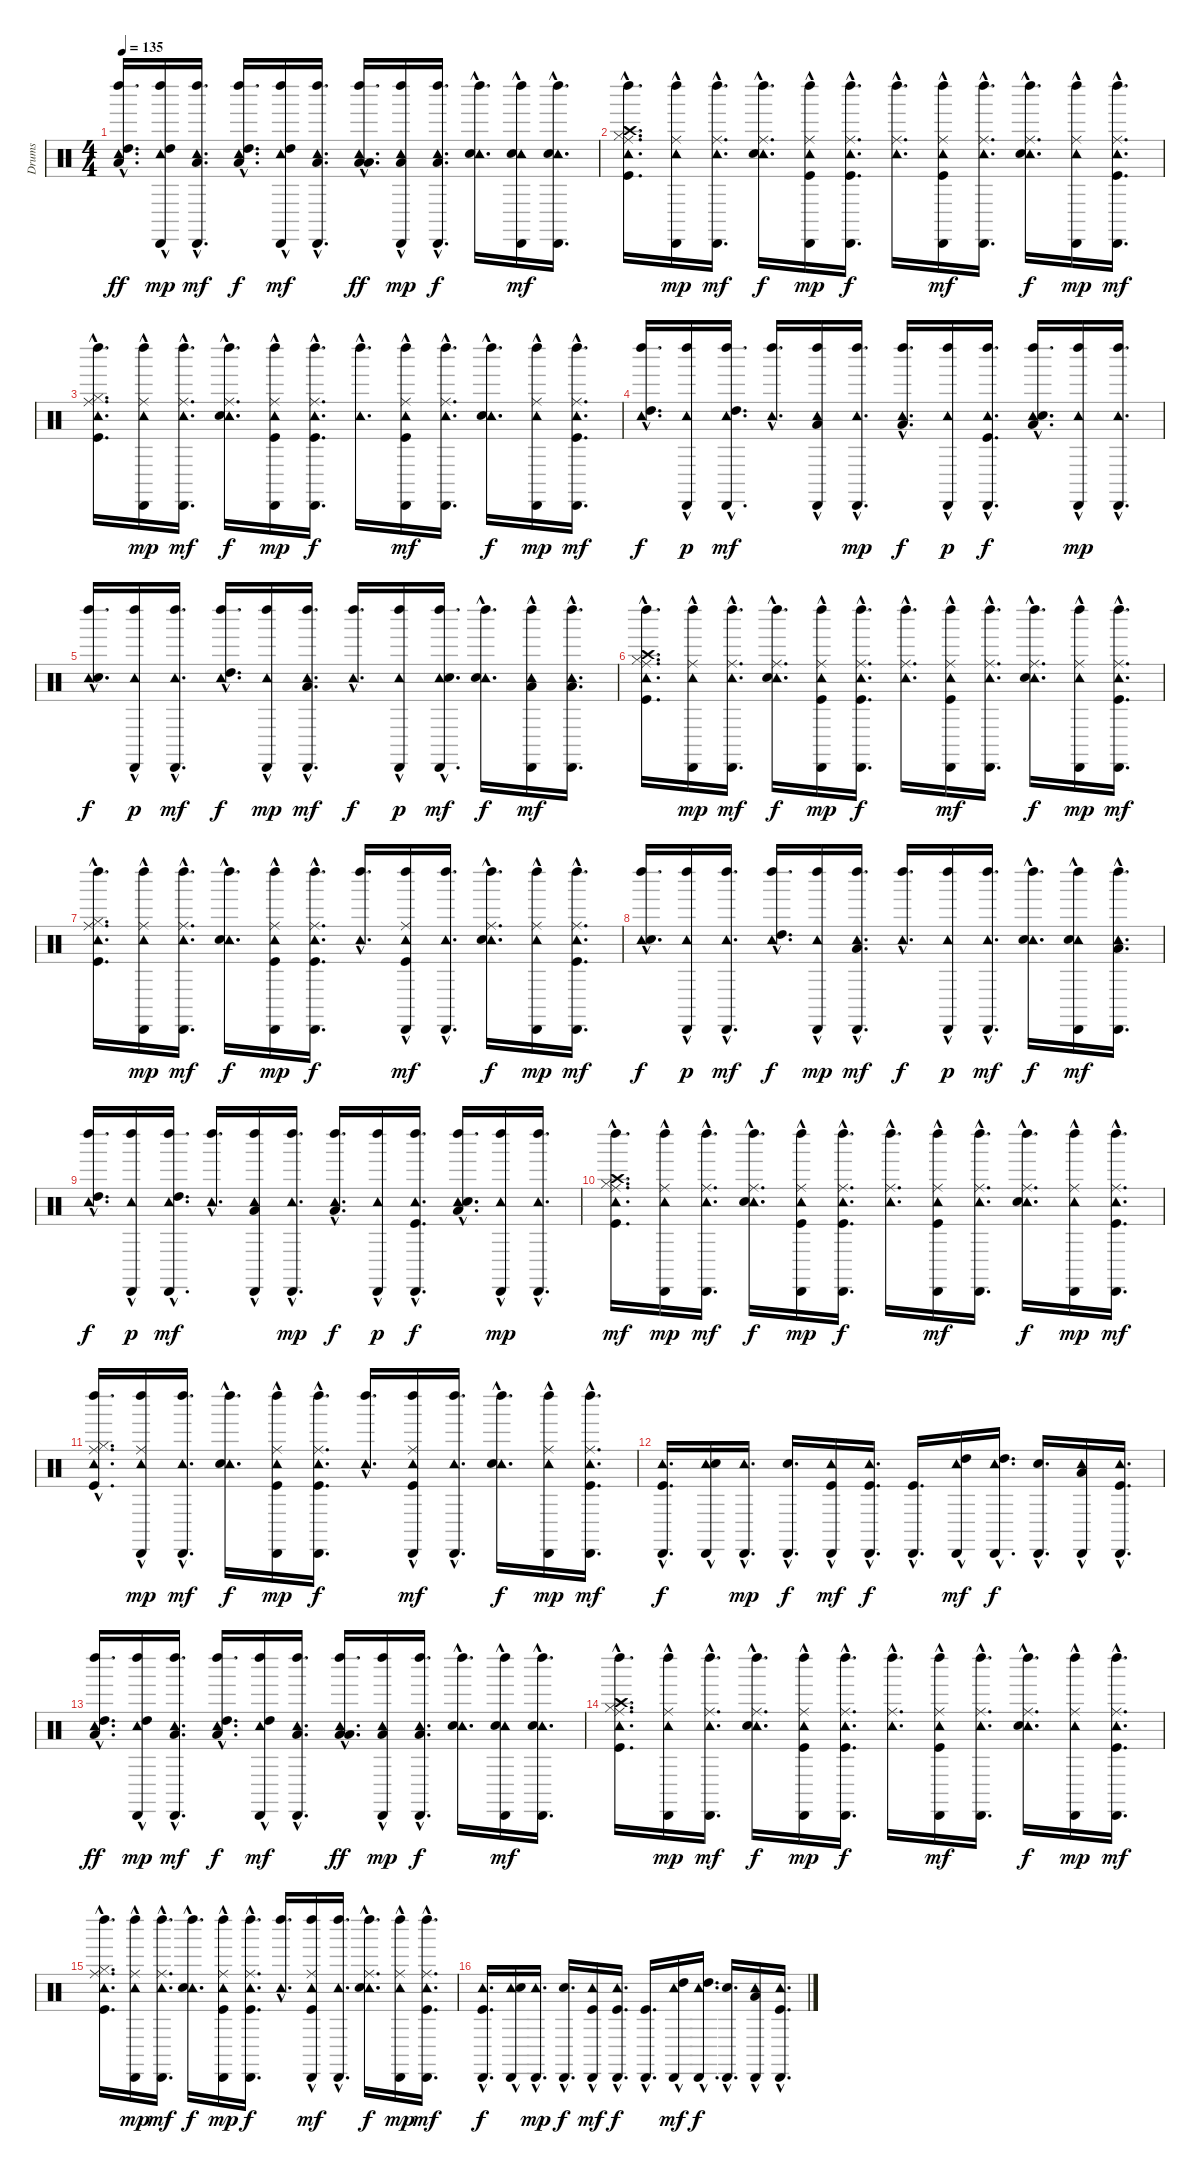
\track ("Drums" "Drums") {instrument percussion}
\staff {score}
\articulation defaults
\ts (4 4)
\tempo 135
\clef neutral
\ks c
("Left Maraca (hit)"{hac} "Tambourine (hit)"{hac} "High Tom (hit)"{hac} "Low Tom (hit)"{hac}).16{d dy ff} ("Left Maraca (hit)"{hac} "Cabasa (hit)"{hac} "Tambourine (hit)"{hac} "High Tom (hit)"{hac}).16{dy mp} ("Left Maraca (hit)"{hac} "Cabasa (hit)"{hac} "Tambourine (hit)"{hac} "Low Tom (hit)"{hac}).16{d dy mf} ("Left Maraca (hit)"{hac} "Tambourine (hit)"{hac} "High Tom (hit)"{hac} "Low Tom (hit)"{hac}).16{d dy f} ("Left Maraca (hit)"{hac} "Cabasa (hit)"{hac} "Tambourine (hit)"{hac} "High Tom (hit)"{hac}).16{dy mf} ("Left Maraca (hit)"{hac} "Cabasa (hit)"{hac} "Tambourine (hit)"{hac} "Low Tom (hit)"{hac}).16{d} ("Left Maraca (hit)"{hac} "Tambourine (hit)"{hac} "Low Tom (hit)"{hac} "Low Floor Tom (hit)"{hac}).16{d dy ff} ("Left Maraca (hit)"{hac} "Cabasa (hit)"{hac} "Tambourine (hit)"{hac} "Low Tom (hit)"{hac}).16{dy mp} ("Left Maraca (hit)"{hac} "Cabasa (hit)"{hac} "Tambourine (hit)"{hac} "Low Floor Tom (hit)"{hac}).16{d dy f} ("Left Maraca (hit)"{hac} "Tambourine (hit)"{hac} "Snare (hit) 2"{hac}).16{d} ("Left Maraca (hit)"{hac} "Cabasa (hit)"{hac} "Tambourine (hit)"{hac} "Snare (hit) 2"{hac}).16{dy mf} ("Left Maraca (hit)"{hac} "Cabasa (hit)"{hac} "Tambourine (hit)"{hac} "Snare (hit) 2"{hac}).16{d} |
("Left Maraca (hit)"{hac} "Tambourine (hit)"{hac} "Ride (middle)"{hac} "Crash high (hit)"{hac} "Hi-Hat (closed)"{hac} "Kick (hit)"{hac}).16{d} ("Left Maraca (hit)"{hac} "Cabasa (hit)"{hac} "Tambourine (hit)"{hac} "Ride (middle)"{hac}).16{dy mp} ("Left Maraca (hit)"{hac} "Cabasa (hit)"{hac} "Tambourine (hit)"{hac} "Ride (middle)"{hac}).16{d dy mf} ("Left Maraca (hit)"{hac} "Tambourine (hit)"{hac} "Ride (middle)"{hac} "Snare (hit) 2"{hac}).16{d dy f} ("Left Maraca (hit)"{hac} "Cabasa (hit)"{hac} "Tambourine (hit)"{hac} "Ride (middle)"{hac} "Kick (hit)"{hac}).16{dy mp} ("Left Maraca (hit)"{hac} "Cabasa (hit)"{hac} "Tambourine (hit)"{hac} "Ride (middle)"{hac} "Kick (hit)"{hac}).16{d dy f} ("Left Maraca (hit)"{hac} "Tambourine (hit)"{hac} "Ride (middle)"{hac}).16{d} ("Left Maraca (hit)"{hac} "Cabasa (hit)"{hac} "Tambourine (hit)"{hac} "Ride (middle)"{hac} "Kick (hit)"{hac}).16{dy mf} ("Left Maraca (hit)"{hac} "Cabasa (hit)"{hac} "Tambourine (hit)"{hac} "Ride (middle)"{hac}).16{d} ("Left Maraca (hit)"{hac} "Tambourine (hit)"{hac} "Ride (middle)"{hac} "Snare (hit) 2"{hac}).16{d dy f} ("Left Maraca (hit)"{hac} "Cabasa (hit)"{hac} "Tambourine (hit)"{hac} "Ride (middle)"{hac}).16{dy mp} ("Left Maraca (hit)"{hac} "Cabasa (hit)"{hac} "Tambourine (hit)"{hac} "Ride (middle)"{hac} "Kick (hit)"{hac}).16{d dy mf} |
("Left Maraca (hit)"{hac} "Tambourine (hit)"{hac} "Ride (middle)"{hac} "Hi-Hat (closed)"{hac} "Kick (hit)"{hac}).16{d} ("Left Maraca (hit)"{hac} "Cabasa (hit)"{hac} "Tambourine (hit)"{hac} "Ride (middle)"{hac}).16{dy mp} ("Left Maraca (hit)"{hac} "Cabasa (hit)"{hac} "Tambourine (hit)"{hac} "Ride (middle)"{hac}).16{d dy mf} ("Left Maraca (hit)"{hac} "Tambourine (hit)"{hac} "Ride (middle)"{hac} "Snare (hit) 2"{hac}).16{d dy f} ("Left Maraca (hit)"{hac} "Cabasa (hit)"{hac} "Tambourine (hit)"{hac} "Ride (middle)"{hac} "Kick (hit)"{hac}).16{dy mp} ("Left Maraca (hit)"{hac} "Cabasa (hit)"{hac} "Tambourine (hit)"{hac} "Ride (middle)"{hac} "Kick (hit)"{hac}).16{d dy f} ("Left Maraca (hit)"{hac} "Tambourine (hit)"{hac}).16{d} ("Left Maraca (hit)"{hac} "Cabasa (hit)"{hac} "Tambourine (hit)"{hac} "Ride (middle)"{hac} "Kick (hit)"{hac}).16{dy mf} ("Left Maraca (hit)"{hac} "Cabasa (hit)"{hac} "Tambourine (hit)"{hac} "Ride (middle)"{hac}).16{d} ("Left Maraca (hit)"{hac} "Tambourine (hit)"{hac} "Snare (hit) 2"{hac}).16{d dy f} ("Left Maraca (hit)"{hac} "Cabasa (hit)"{hac} "Tambourine (hit)"{hac} "Ride (middle)"{hac}).16{dy mp} ("Left Maraca (hit)"{hac} "Cabasa (hit)"{hac} "Tambourine (hit)"{hac} "Ride (middle)"{hac} "Kick (hit)"{hac}).16{d dy mf} |
("Left Maraca (hit)"{hac} "Tambourine (hit)"{hac} "High Tom (hit)"{hac}).16{d dy f} ("Left Maraca (hit)"{hac} "Cabasa (hit)"{hac} "Tambourine (hit)"{hac}).16{dy p} ("Left Maraca (hit)"{hac} "Cabasa (hit)"{hac} "Tambourine (hit)"{hac} "High Tom (hit)"{hac}).16{d dy mf} ("Left Maraca (hit)"{hac} "Tambourine (hit)"{hac}).16{d} ("Left Maraca (hit)"{hac} "Cabasa (hit)"{hac} "Tambourine (hit)"{hac} "Low Tom (hit)"{hac}).16 ("Left Maraca (hit)"{hac} "Cabasa (hit)"{hac} "Tambourine (hit)"{hac}).16{d dy mp} ("Left Maraca (hit)"{hac} "Tambourine (hit)"{hac} "Low Tom (hit)"{hac}).16{d dy f} ("Left Maraca (hit)"{hac} "Cabasa (hit)"{hac} "Tambourine (hit)"{hac}).16{dy p} ("Left Maraca (hit)"{hac} "Cabasa (hit)"{hac} "Tambourine (hit)"{hac} "Kick (hit)"{hac}).16{d dy f} ("Left Maraca (hit)"{hac} "Tambourine (hit)"{hac} "Low Floor Tom (hit)"{hac} "Snare (hit) 2"{hac}).16{d} ("Left Maraca (hit)"{hac} "Cabasa (hit)"{hac} "Tambourine (hit)"{hac}).16{dy mp} ("Left Maraca (hit)"{hac} "Cabasa (hit)"{hac} "Tambourine (hit)"{hac}).16{d} |
("Left Maraca (hit)"{hac} "Tambourine (hit)"{hac} "Snare (hit) 2"{hac}).16{d dy f} ("Left Maraca (hit)"{hac} "Cabasa (hit)"{hac} "Tambourine (hit)"{hac}).16{dy p} ("Left Maraca (hit)"{hac} "Cabasa (hit)"{hac} "Tambourine (hit)"{hac}).16{d dy mf} ("Left Maraca (hit)"{hac} "Tambourine (hit)"{hac} "High Tom (hit)"{hac}).16{d dy f} ("Left Maraca (hit)"{hac} "Cabasa (hit)"{hac} "Tambourine (hit)"{hac}).16{dy mp} ("Left Maraca (hit)"{hac} "Cabasa (hit)"{hac} "Tambourine (hit)"{hac} "Low Tom (hit)"{hac}).16{d dy mf} ("Left Maraca (hit)"{hac} "Tambourine (hit)"{hac}).16{d dy f} ("Left Maraca (hit)"{hac} "Cabasa (hit)"{hac} "Tambourine (hit)"{hac}).16{dy p} ("Left Maraca (hit)"{hac} "Cabasa (hit)"{hac} "Tambourine (hit)"{hac} "Snare (hit) 2"{hac}).16{d dy mf} ("Left Maraca (hit)"{hac} "Tambourine (hit)"{hac} "Snare (hit) 2"{hac}).16{d dy f} ("Left Maraca (hit)"{hac} "Cabasa (hit)"{hac} "Tambourine (hit)"{hac} "Low Floor Tom (hit)"{hac}).16{dy mf} ("Left Maraca (hit)"{hac} "Cabasa (hit)"{hac} "Tambourine (hit)"{hac} "Low Floor Tom (hit)"{hac}).16{d} |
("Left Maraca (hit)"{hac} "Tambourine (hit)"{hac} "Ride (middle)"{hac} "Crash high (hit)"{hac} "Hi-Hat (closed)"{hac} "Kick (hit)"{hac}).16{d} ("Left Maraca (hit)"{hac} "Cabasa (hit)"{hac} "Tambourine (hit)"{hac} "Ride (middle)"{hac}).16{dy mp} ("Left Maraca (hit)"{hac} "Cabasa (hit)"{hac} "Tambourine (hit)"{hac} "Ride (middle)"{hac}).16{d dy mf} ("Left Maraca (hit)"{hac} "Tambourine (hit)"{hac} "Ride (middle)"{hac} "Snare (hit) 2"{hac}).16{d dy f} ("Left Maraca (hit)"{hac} "Cabasa (hit)"{hac} "Tambourine (hit)"{hac} "Ride (middle)"{hac} "Kick (hit)"{hac}).16{dy mp} ("Left Maraca (hit)"{hac} "Cabasa (hit)"{hac} "Tambourine (hit)"{hac} "Ride (middle)"{hac} "Kick (hit)"{hac}).16{d dy f} ("Left Maraca (hit)"{hac} "Tambourine (hit)"{hac} "Ride (middle)"{hac}).16{d} ("Left Maraca (hit)"{hac} "Cabasa (hit)"{hac} "Tambourine (hit)"{hac} "Ride (middle)"{hac} "Kick (hit)"{hac}).16{dy mf} ("Left Maraca (hit)"{hac} "Cabasa (hit)"{hac} "Tambourine (hit)"{hac} "Ride (middle)"{hac}).16{d} ("Left Maraca (hit)"{hac} "Tambourine (hit)"{hac} "Ride (middle)"{hac} "Snare (hit) 2"{hac}).16{d dy f} ("Left Maraca (hit)"{hac} "Cabasa (hit)"{hac} "Tambourine (hit)"{hac} "Ride (middle)"{hac}).16{dy mp} ("Left Maraca (hit)"{hac} "Cabasa (hit)"{hac} "Tambourine (hit)"{hac} "Ride (middle)"{hac} "Kick (hit)"{hac}).16{d dy mf} |
("Left Maraca (hit)"{hac} "Tambourine (hit)"{hac} "Ride (middle)"{hac} "Hi-Hat (closed)"{hac} "Kick (hit)"{hac}).16{d} ("Left Maraca (hit)"{hac} "Cabasa (hit)"{hac} "Tambourine (hit)"{hac} "Ride (middle)"{hac}).16{dy mp} ("Left Maraca (hit)"{hac} "Cabasa (hit)"{hac} "Tambourine (hit)"{hac} "Ride (middle)"{hac}).16{d dy mf} ("Left Maraca (hit)"{hac} "Tambourine (hit)"{hac} "Snare (hit) 2"{hac}).16{d dy f} ("Left Maraca (hit)"{hac} "Cabasa (hit)"{hac} "Tambourine (hit)"{hac} "Ride (middle)"{hac} "Kick (hit)"{hac}).16{dy mp} ("Left Maraca (hit)"{hac} "Cabasa (hit)"{hac} "Tambourine (hit)"{hac} "Ride (middle)"{hac} "Kick (hit)"{hac}).16{d dy f} ("Left Maraca (hit)"{hac} "Tambourine (hit)"{hac}).16{d} ("Left Maraca (hit)"{hac} "Cabasa (hit)"{hac} "Tambourine (hit)"{hac} "Ride (middle)"{hac} "Kick (hit)"{hac}).16{dy mf} ("Left Maraca (hit)"{hac} "Cabasa (hit)"{hac} "Tambourine (hit)"{hac}).16{d} ("Left Maraca (hit)"{hac} "Tambourine (hit)"{hac} "Ride (middle)"{hac} "Snare (hit) 2"{hac}).16{d dy f} ("Left Maraca (hit)"{hac} "Cabasa (hit)"{hac} "Tambourine (hit)"{hac} "Ride (middle)"{hac}).16{dy mp} ("Left Maraca (hit)"{hac} "Cabasa (hit)"{hac} "Tambourine (hit)"{hac} "Ride (middle)"{hac} "Kick (hit)"{hac}).16{d dy mf} |
("Left Maraca (hit)"{hac} "Tambourine (hit)"{hac} "Snare (hit) 2"{hac}).16{d dy f} ("Left Maraca (hit)"{hac} "Cabasa (hit)"{hac} "Tambourine (hit)"{hac}).16{dy p} ("Left Maraca (hit)"{hac} "Cabasa (hit)"{hac} "Tambourine (hit)"{hac}).16{d dy mf} ("Left Maraca (hit)"{hac} "Tambourine (hit)"{hac} "High Tom (hit)"{hac}).16{d dy f} ("Left Maraca (hit)"{hac} "Cabasa (hit)"{hac} "Tambourine (hit)"{hac}).16{dy mp} ("Left Maraca (hit)"{hac} "Cabasa (hit)"{hac} "Tambourine (hit)"{hac} "Low Tom (hit)"{hac}).16{d dy mf} ("Left Maraca (hit)"{hac} "Tambourine (hit)"{hac}).16{d dy f} ("Left Maraca (hit)"{hac} "Cabasa (hit)"{hac} "Tambourine (hit)"{hac}).16{dy p} ("Left Maraca (hit)"{hac} "Cabasa (hit)"{hac} "Tambourine (hit)"{hac}).16{d dy mf} ("Left Maraca (hit)"{hac} "Tambourine (hit)"{hac} "Snare (hit) 2"{hac}).16{d dy f} ("Left Maraca (hit)"{hac} "Cabasa (hit)"{hac} "Tambourine (hit)"{hac} "Snare (hit) 2"{hac}).16{dy mf} ("Left Maraca (hit)"{hac} "Cabasa (hit)"{hac} "Tambourine (hit)"{hac} "Low Floor Tom (hit)"{hac}).16{d} |
("Left Maraca (hit)"{hac} "Tambourine (hit)"{hac} "High Tom (hit)"{hac}).16{d dy f} ("Left Maraca (hit)"{hac} "Cabasa (hit)"{hac} "Tambourine (hit)"{hac}).16{dy p} ("Left Maraca (hit)"{hac} "Cabasa (hit)"{hac} "Tambourine (hit)"{hac} "High Tom (hit)"{hac}).16{d dy mf} ("Left Maraca (hit)"{hac} "Tambourine (hit)"{hac}).16{d} ("Left Maraca (hit)"{hac} "Cabasa (hit)"{hac} "Tambourine (hit)"{hac} "Low Tom (hit)"{hac}).16 ("Left Maraca (hit)"{hac} "Cabasa (hit)"{hac} "Tambourine (hit)"{hac}).16{d dy mp} ("Left Maraca (hit)"{hac} "Tambourine (hit)"{hac} "Low Tom (hit)"{hac}).16{d dy f} ("Left Maraca (hit)"{hac} "Cabasa (hit)"{hac} "Tambourine (hit)"{hac}).16{dy p} ("Left Maraca (hit)"{hac} "Cabasa (hit)"{hac} "Tambourine (hit)"{hac} "Kick (hit)"{hac}).16{d dy f} ("Left Maraca (hit)"{hac} "Tambourine (hit)"{hac} "Low Floor Tom (hit)"{hac} "Snare (hit) 2"{hac}).16{d} ("Left Maraca (hit)"{hac} "Cabasa (hit)"{hac} "Tambourine (hit)"{hac}).16{dy mp} ("Left Maraca (hit)"{hac} "Cabasa (hit)"{hac} "Tambourine (hit)"{hac}).16{d} |
("Left Maraca (hit)"{hac} "Tambourine (hit)"{hac} "Ride (middle)"{hac} "Crash high (hit)"{hac} "Hi-Hat (closed)"{hac} "Kick (hit)"{hac}).16{d dy mf} ("Left Maraca (hit)"{hac} "Cabasa (hit)"{hac} "Tambourine (hit)"{hac} "Ride (middle)"{hac}).16{dy mp} ("Left Maraca (hit)"{hac} "Cabasa (hit)"{hac} "Tambourine (hit)"{hac} "Ride (middle)"{hac}).16{d dy mf} ("Left Maraca (hit)"{hac} "Tambourine (hit)"{hac} "Ride (middle)"{hac} "Snare (hit) 2"{hac}).16{d dy f} ("Left Maraca (hit)"{hac} "Cabasa (hit)"{hac} "Tambourine (hit)"{hac} "Ride (middle)"{hac} "Kick (hit)"{hac}).16{dy mp} ("Left Maraca (hit)"{hac} "Cabasa (hit)"{hac} "Tambourine (hit)"{hac} "Ride (middle)"{hac} "Kick (hit)"{hac}).16{d dy f} ("Left Maraca (hit)"{hac} "Tambourine (hit)"{hac} "Ride (middle)"{hac}).16{d} ("Left Maraca (hit)"{hac} "Cabasa (hit)"{hac} "Tambourine (hit)"{hac} "Ride (middle)"{hac} "Kick (hit)"{hac}).16{dy mf} ("Left Maraca (hit)"{hac} "Cabasa (hit)"{hac} "Tambourine (hit)"{hac} "Ride (middle)"{hac}).16{d} ("Left Maraca (hit)"{hac} "Tambourine (hit)"{hac} "Ride (middle)"{hac} "Snare (hit) 2"{hac}).16{d dy f} ("Left Maraca (hit)"{hac} "Cabasa (hit)"{hac} "Tambourine (hit)"{hac} "Ride (middle)"{hac}).16{dy mp} ("Left Maraca (hit)"{hac} "Cabasa (hit)"{hac} "Tambourine (hit)"{hac} "Ride (middle)"{hac} "Kick (hit)"{hac}).16{d dy mf} |
("Left Maraca (hit)"{hac} "Tambourine (hit)"{hac} "Ride (middle)"{hac} "Hi-Hat (closed)"{hac} "Kick (hit)"{hac}).16{d} ("Left Maraca (hit)"{hac} "Cabasa (hit)"{hac} "Tambourine (hit)"{hac} "Ride (middle)"{hac}).16{dy mp} ("Left Maraca (hit)"{hac} "Cabasa (hit)"{hac} "Tambourine (hit)"{hac}).16{d dy mf} ("Left Maraca (hit)"{hac} "Tambourine (hit)"{hac} "Snare (hit) 2"{hac}).16{d dy f} ("Left Maraca (hit)"{hac} "Cabasa (hit)"{hac} "Tambourine (hit)"{hac} "Ride (middle)"{hac} "Kick (hit)"{hac}).16{dy mp} ("Left Maraca (hit)"{hac} "Cabasa (hit)"{hac} "Tambourine (hit)"{hac} "Ride (middle)"{hac} "Kick (hit)"{hac}).16{d dy f} ("Left Maraca (hit)"{hac} "Tambourine (hit)"{hac}).16{d} ("Left Maraca (hit)"{hac} "Cabasa (hit)"{hac} "Tambourine (hit)"{hac} "Ride (middle)"{hac} "Kick (hit)"{hac}).16{dy mf} ("Left Maraca (hit)"{hac} "Cabasa (hit)"{hac} "Tambourine (hit)"{hac}).16{d} ("Left Maraca (hit)"{hac} "Tambourine (hit)"{hac} "Snare (hit) 2"{hac}).16{d dy f} ("Left Maraca (hit)"{hac} "Cabasa (hit)"{hac} "Tambourine (hit)"{hac} "Ride (middle)"{hac}).16{dy mp} ("Left Maraca (hit)"{hac} "Cabasa (hit)"{hac} "Tambourine (hit)"{hac} "Ride (middle)"{hac} "Kick (hit)"{hac}).16{d dy mf} |
("Cabasa (hit)"{hac} "Tambourine (hit)"{hac} "Kick (hit)"{hac}).16{d dy f} ("Cabasa (hit)"{hac} "Tambourine (hit)"{hac} "Snare (hit) 2"{hac}).16 ("Cabasa (hit)"{hac} "Tambourine (hit)"{hac}).16{d dy mp} ("Cabasa (hit)"{hac} "Snare (hit) 2"{hac}).16{d dy f} ("Cabasa (hit)"{hac} "Tambourine (hit)"{hac} "Kick (hit)"{hac}).16{dy mf} ("Cabasa (hit)"{hac} "Tambourine (hit)"{hac} "Kick (hit)"{hac}).16{d dy f} ("Cabasa (hit)"{hac} "Kick (hit)"{hac}).16{d} ("Cabasa (hit)"{hac} "Tambourine (hit)"{hac} "High Tom (hit)"{hac}).16{dy mf} ("Cabasa (hit)"{hac} "Tambourine (hit)"{hac} "High Tom (hit)"{hac}).16{d dy f} ("Cabasa (hit)"{hac} "Snare (hit) 2"{hac}).16{d} ("Cabasa (hit)"{hac} "Tambourine (hit)"{hac} "Low Tom (hit)"{hac}).16 ("Cabasa (hit)"{hac} "Tambourine (hit)"{hac} "Kick (hit)"{hac}).16{d} |
("Left Maraca (hit)"{hac} "Tambourine (hit)"{hac} "High Tom (hit)"{hac} "Low Tom (hit)"{hac}).16{d dy ff} ("Left Maraca (hit)"{hac} "Cabasa (hit)"{hac} "Tambourine (hit)"{hac} "High Tom (hit)"{hac}).16{dy mp} ("Left Maraca (hit)"{hac} "Cabasa (hit)"{hac} "Tambourine (hit)"{hac} "Low Tom (hit)"{hac}).16{d dy mf} ("Left Maraca (hit)"{hac} "Tambourine (hit)"{hac} "High Tom (hit)"{hac} "Low Tom (hit)"{hac}).16{d dy f} ("Left Maraca (hit)"{hac} "Cabasa (hit)"{hac} "Tambourine (hit)"{hac} "High Tom (hit)"{hac}).16{dy mf} ("Left Maraca (hit)"{hac} "Cabasa (hit)"{hac} "Tambourine (hit)"{hac} "Low Tom (hit)"{hac}).16{d} ("Left Maraca (hit)"{hac} "Tambourine (hit)"{hac} "Low Tom (hit)"{hac} "Low Floor Tom (hit)"{hac}).16{d dy ff} ("Left Maraca (hit)"{hac} "Cabasa (hit)"{hac} "Tambourine (hit)"{hac} "Low Tom (hit)"{hac}).16{dy mp} ("Left Maraca (hit)"{hac} "Cabasa (hit)"{hac} "Tambourine (hit)"{hac} "Low Floor Tom (hit)"{hac}).16{d dy f} ("Left Maraca (hit)"{hac} "Tambourine (hit)"{hac} "Snare (hit) 2"{hac}).16{d} ("Left Maraca (hit)"{hac} "Cabasa (hit)"{hac} "Tambourine (hit)"{hac} "Snare (hit) 2"{hac}).16{dy mf} ("Left Maraca (hit)"{hac} "Cabasa (hit)"{hac} "Tambourine (hit)"{hac} "Snare (hit) 2"{hac}).16{d} |
("Left Maraca (hit)"{hac} "Tambourine (hit)"{hac} "Ride (middle)"{hac} "Crash high (hit)"{hac} "Hi-Hat (closed)"{hac} "Kick (hit)"{hac}).16{d} ("Left Maraca (hit)"{hac} "Cabasa (hit)"{hac} "Tambourine (hit)"{hac} "Ride (middle)"{hac}).16{dy mp} ("Left Maraca (hit)"{hac} "Cabasa (hit)"{hac} "Tambourine (hit)"{hac} "Ride (middle)"{hac}).16{d dy mf} ("Left Maraca (hit)"{hac} "Tambourine (hit)"{hac} "Ride (middle)"{hac} "Snare (hit) 2"{hac}).16{d dy f} ("Left Maraca (hit)"{hac} "Cabasa (hit)"{hac} "Tambourine (hit)"{hac} "Ride (middle)"{hac} "Kick (hit)"{hac}).16{dy mp} ("Left Maraca (hit)"{hac} "Cabasa (hit)"{hac} "Tambourine (hit)"{hac} "Ride (middle)"{hac} "Kick (hit)"{hac}).16{d dy f} ("Left Maraca (hit)"{hac} "Tambourine (hit)"{hac} "Ride (middle)"{hac}).16{d} ("Left Maraca (hit)"{hac} "Cabasa (hit)"{hac} "Tambourine (hit)"{hac} "Ride (middle)"{hac} "Kick (hit)"{hac}).16{dy mf} ("Left Maraca (hit)"{hac} "Cabasa (hit)"{hac} "Tambourine (hit)"{hac} "Ride (middle)"{hac}).16{d} ("Left Maraca (hit)"{hac} "Tambourine (hit)"{hac} "Ride (middle)"{hac} "Snare (hit) 2"{hac}).16{d dy f} ("Left Maraca (hit)"{hac} "Cabasa (hit)"{hac} "Tambourine (hit)"{hac} "Ride (middle)"{hac}).16{dy mp} ("Left Maraca (hit)"{hac} "Cabasa (hit)"{hac} "Tambourine (hit)"{hac} "Ride (middle)"{hac} "Kick (hit)"{hac}).16{d dy mf} |
("Left Maraca (hit)"{hac} "Tambourine (hit)"{hac} "Ride (middle)"{hac} "Hi-Hat (closed)"{hac} "Kick (hit)"{hac}).16{d} ("Left Maraca (hit)"{hac} "Cabasa (hit)"{hac} "Tambourine (hit)"{hac} "Ride (middle)"{hac}).16{dy mp} ("Left Maraca (hit)"{hac} "Cabasa (hit)"{hac} "Tambourine (hit)"{hac} "Ride (middle)"{hac}).16{d dy mf} ("Left Maraca (hit)"{hac} "Tambourine (hit)"{hac} "Snare (hit) 2"{hac}).16{d dy f} ("Left Maraca (hit)"{hac} "Cabasa (hit)"{hac} "Tambourine (hit)"{hac} "Ride (middle)"{hac} "Kick (hit)"{hac}).16{dy mp} ("Left Maraca (hit)"{hac} "Cabasa (hit)"{hac} "Tambourine (hit)"{hac} "Ride (middle)"{hac} "Kick (hit)"{hac}).16{d dy f} ("Left Maraca (hit)"{hac} "Tambourine (hit)"{hac}).16{d} ("Left Maraca (hit)"{hac} "Cabasa (hit)"{hac} "Tambourine (hit)"{hac} "Ride (middle)"{hac} "Kick (hit)"{hac}).16{dy mf} ("Left Maraca (hit)"{hac} "Cabasa (hit)"{hac} "Tambourine (hit)"{hac}).16{d} ("Left Maraca (hit)"{hac} "Tambourine (hit)"{hac} "Ride (middle)"{hac} "Snare (hit) 2"{hac}).16{d dy f} ("Left Maraca (hit)"{hac} "Cabasa (hit)"{hac} "Tambourine (hit)"{hac} "Ride (middle)"{hac}).16{dy mp} ("Left Maraca (hit)"{hac} "Cabasa (hit)"{hac} "Tambourine (hit)"{hac} "Ride (middle)"{hac} "Kick (hit)"{hac}).16{d dy mf} |
("Cabasa (hit)"{hac} "Tambourine (hit)"{hac} "Kick (hit)"{hac}).16{d dy f} ("Cabasa (hit)"{hac} "Tambourine (hit)"{hac} "Snare (hit) 2"{hac}).16 ("Cabasa (hit)"{hac} "Tambourine (hit)"{hac}).16{d dy mp} ("Cabasa (hit)"{hac} "Snare (hit) 2"{hac}).16{d dy f} ("Cabasa (hit)"{hac} "Tambourine (hit)"{hac} "Kick (hit)"{hac}).16{dy mf} ("Cabasa (hit)"{hac} "Tambourine (hit)"{hac} "Kick (hit)"{hac}).16{d dy f} ("Cabasa (hit)"{hac} "Kick (hit)"{hac}).16{d} ("Cabasa (hit)"{hac} "Tambourine (hit)"{hac} "High Tom (hit)"{hac}).16{dy mf} ("Cabasa (hit)"{hac} "Tambourine (hit)"{hac} "High Tom (hit)"{hac}).16{d dy f} ("Cabasa (hit)"{hac} "Snare (hit) 2"{hac}).16{d} ("Cabasa (hit)"{hac} "Tambourine (hit)"{hac} "Low Tom (hit)"{hac}).16 ("Cabasa (hit)"{hac} "Tambourine (hit)"{hac} "Kick (hit)"{hac}).16{d}
